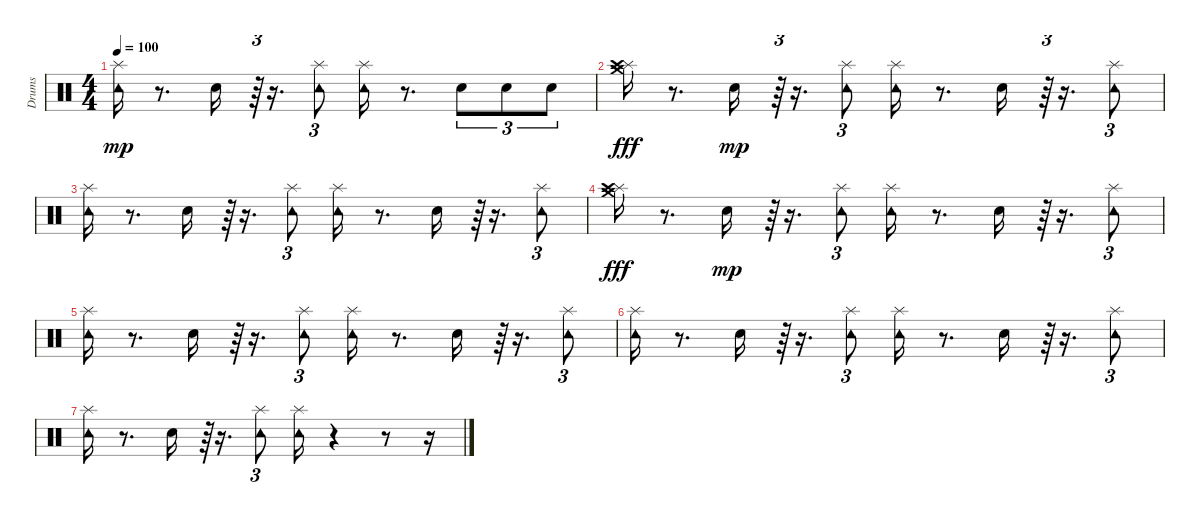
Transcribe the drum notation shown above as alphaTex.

\track ("Drums" "Drums") {instrument percussion}
\staff {score}
\articulation defaults
\ts (4 4)
\tempo 100
\clef neutral
\ks c
("Tambourine (hit)" "Splash (hit)").16{dy mp} r.8{d} "Snare (hit)".16 r.64{tu (3 2)} r.16{d} ("Splash (hit)" "Tambourine (hit)").8{tu (3 2)} ("Splash (hit)" "Tambourine (hit)").16 r.8{d} "Snare (hit)".8{tu (3 2)} "Snare (hit)".8{tu (3 2)} "Snare (hit)".8{tu (3 2)} |
("Splash (hit)" "Crash medium (hit)" "Crash high (hit)").16{dy fff} r.8{d} "Snare (hit)".16{dy mp} r.64{tu (3 2)} r.16{d} ("Tambourine (hit)" "Splash (hit)").8{tu (3 2)} ("Tambourine (hit)" "Splash (hit)").16 r.8{d} "Snare (hit)".16 r.64{tu (3 2)} r.16{d} ("Tambourine (hit)" "Splash (hit)").8{tu (3 2)} |
("Tambourine (hit)" "Splash (hit)").16 r.8{d} "Snare (hit)".16 r.64{tu (3 2)} r.16{d} ("Tambourine (hit)" "Splash (hit)").8{tu (3 2)} ("Tambourine (hit)" "Splash (hit)").16 r.8{d} "Snare (hit)".16 r.64{tu (3 2)} r.16{d} ("Splash (hit)" "Tambourine (hit)").8{tu (3 2)} |
("Crash medium (hit)" "Splash (hit)" "Crash high (hit)").16{dy fff} r.8{d} "Snare (hit)".16{dy mp volume 4} r.64{tu (3 2)} r.16{d} ("Tambourine (hit)" "Splash (hit)").8{tu (3 2) volume 4} ("Tambourine (hit)" "Splash (hit)").16{volume 4} r.8{d} "Snare (hit)".16 r.64{tu (3 2)} r.16{d} ("Tambourine (hit)" "Splash (hit)").8{tu (3 2) volume 4} |
("Tambourine (hit)" "Splash (hit)").16{volume 4} r.8{d} "Snare (hit)".16{volume 3} r.64{tu (3 2)} r.16{d} ("Splash (hit)" "Tambourine (hit)").8{tu (3 2) volume 2} ("Tambourine (hit)" "Splash (hit)").16{volume 2} r.8{d} "Snare (hit)".16 r.64{tu (3 2)} r.16{d} ("Splash (hit)" "Tambourine (hit)").8{tu (3 2) volume 2} |
("Tambourine (hit)" "Splash (hit)").16 r.8{d} "Snare (hit)".16 r.64{tu (3 2)} r.16{d} ("Tambourine (hit)" "Splash (hit)").8{tu (3 2) volume 2} ("Splash (hit)" "Tambourine (hit)").16 r.8{d} "Snare (hit)".16{volume 2} r.64{tu (3 2)} r.16{d} ("Splash (hit)" "Tambourine (hit)").8{tu (3 2) volume 1} |
("Splash (hit)" "Tambourine (hit)").16{volume 1} r.8{d} "Snare (hit)".16{volume 1} r.64{tu (3 2)} r.16{d} ("Splash (hit)" "Tambourine (hit)").8{tu (3 2) volume 0} ("Tambourine (hit)" "Splash (hit)").16{volume 0} r.4 r.8 r.16
